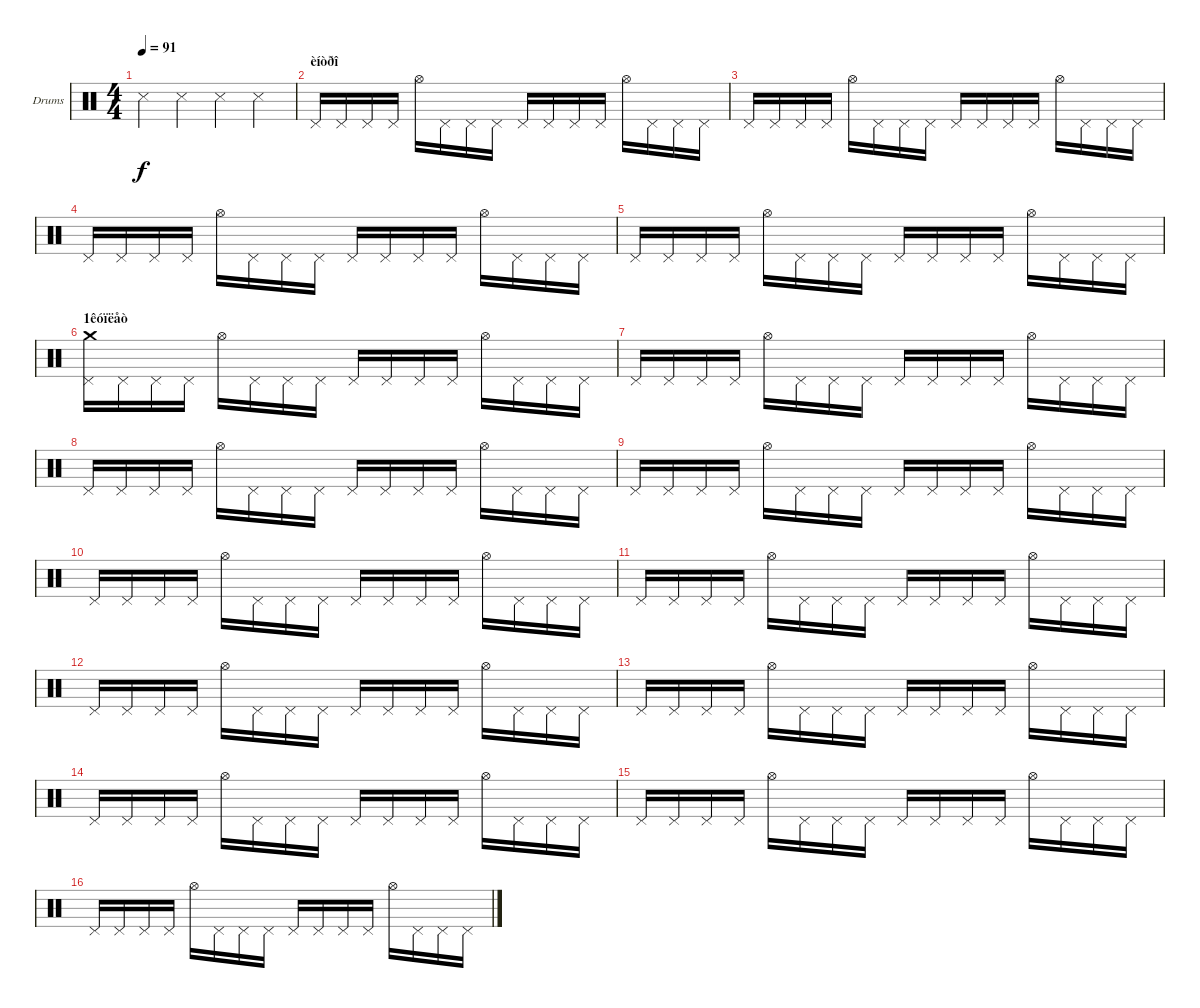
\bracketExtendMode groupsimilarinstruments
\firstSystemTrackNameOrientation horizontal
\otherSystemsTrackNameOrientation horizontal
\track ("Drumkit" "Drums") {instrument percussion}
\staff {score}
\articulation defaults
\ts (4 4)
\tempo 91
\clef neutral
\ks c "Snare (side stick) 3".4{dy f} "Snare (side stick) 3".4 "Snare (side stick) 3".4 "Snare (side stick) 3".4
|
\section ("" "èíòðî")
"Pedal Hi-Hat (hit)".16 "Pedal Hi-Hat (hit)".16 "Pedal Hi-Hat (hit)".16 "Pedal Hi-Hat (hit)".16 "Hi-Hat (open)".16 "Pedal Hi-Hat (hit)".16 "Pedal Hi-Hat (hit)".16 "Pedal Hi-Hat (hit)".16 "Pedal Hi-Hat (hit)".16 "Pedal Hi-Hat (hit)".16 "Pedal Hi-Hat (hit)".16 "Pedal Hi-Hat (hit)".16 "Hi-Hat (open)".16 "Pedal Hi-Hat (hit)".16 "Pedal Hi-Hat (hit)".16 "Pedal Hi-Hat (hit)".16 |
"Pedal Hi-Hat (hit)".16 "Pedal Hi-Hat (hit)".16 "Pedal Hi-Hat (hit)".16 "Pedal Hi-Hat (hit)".16 "Hi-Hat (open)".16 "Pedal Hi-Hat (hit)".16 "Pedal Hi-Hat (hit)".16 "Pedal Hi-Hat (hit)".16 "Pedal Hi-Hat (hit)".16 "Pedal Hi-Hat (hit)".16 "Pedal Hi-Hat (hit)".16 "Pedal Hi-Hat (hit)".16 "Hi-Hat (open)".16 "Pedal Hi-Hat (hit)".16 "Pedal Hi-Hat (hit)".16 "Pedal Hi-Hat (hit)".16 |
"Pedal Hi-Hat (hit)".16 "Pedal Hi-Hat (hit)".16 "Pedal Hi-Hat (hit)".16 "Pedal Hi-Hat (hit)".16 "Hi-Hat (open)".16 "Pedal Hi-Hat (hit)".16 "Pedal Hi-Hat (hit)".16 "Pedal Hi-Hat (hit)".16 "Pedal Hi-Hat (hit)".16 "Pedal Hi-Hat (hit)".16 "Pedal Hi-Hat (hit)".16 "Pedal Hi-Hat (hit)".16 "Hi-Hat (open)".16 "Pedal Hi-Hat (hit)".16 "Pedal Hi-Hat (hit)".16 "Pedal Hi-Hat (hit)".16 |
"Pedal Hi-Hat (hit)".16 "Pedal Hi-Hat (hit)".16 "Pedal Hi-Hat (hit)".16 "Pedal Hi-Hat (hit)".16 "Hi-Hat (open)".16 "Pedal Hi-Hat (hit)".16 "Pedal Hi-Hat (hit)".16 "Pedal Hi-Hat (hit)".16 "Pedal Hi-Hat (hit)".16 "Pedal Hi-Hat (hit)".16 "Pedal Hi-Hat (hit)".16 "Pedal Hi-Hat (hit)".16 "Hi-Hat (open)".16 "Pedal Hi-Hat (hit)".16 "Pedal Hi-Hat (hit)".16 "Pedal Hi-Hat (hit)".16 |
\section ("" "1êóïëåò")
("Pedal Hi-Hat (hit)" "Crash medium (hit)").16 "Pedal Hi-Hat (hit)".16 "Pedal Hi-Hat (hit)".16 "Pedal Hi-Hat (hit)".16 "Hi-Hat (open)".16 "Pedal Hi-Hat (hit)".16 "Pedal Hi-Hat (hit)".16 "Pedal Hi-Hat (hit)".16 "Pedal Hi-Hat (hit)".16 "Pedal Hi-Hat (hit)".16 "Pedal Hi-Hat (hit)".16 "Pedal Hi-Hat (hit)".16 "Hi-Hat (open)".16 "Pedal Hi-Hat (hit)".16 "Pedal Hi-Hat (hit)".16 "Pedal Hi-Hat (hit)".16 |
"Pedal Hi-Hat (hit)".16 "Pedal Hi-Hat (hit)".16 "Pedal Hi-Hat (hit)".16 "Pedal Hi-Hat (hit)".16 "Hi-Hat (open)".16 "Pedal Hi-Hat (hit)".16 "Pedal Hi-Hat (hit)".16 "Pedal Hi-Hat (hit)".16 "Pedal Hi-Hat (hit)".16 "Pedal Hi-Hat (hit)".16 "Pedal Hi-Hat (hit)".16 "Pedal Hi-Hat (hit)".16 "Hi-Hat (open)".16 "Pedal Hi-Hat (hit)".16 "Pedal Hi-Hat (hit)".16 "Pedal Hi-Hat (hit)".16 |
"Pedal Hi-Hat (hit)".16 "Pedal Hi-Hat (hit)".16 "Pedal Hi-Hat (hit)".16 "Pedal Hi-Hat (hit)".16 "Hi-Hat (open)".16 "Pedal Hi-Hat (hit)".16 "Pedal Hi-Hat (hit)".16 "Pedal Hi-Hat (hit)".16 "Pedal Hi-Hat (hit)".16 "Pedal Hi-Hat (hit)".16 "Pedal Hi-Hat (hit)".16 "Pedal Hi-Hat (hit)".16 "Hi-Hat (open)".16 "Pedal Hi-Hat (hit)".16 "Pedal Hi-Hat (hit)".16 "Pedal Hi-Hat (hit)".16 |
"Pedal Hi-Hat (hit)".16 "Pedal Hi-Hat (hit)".16 "Pedal Hi-Hat (hit)".16 "Pedal Hi-Hat (hit)".16 "Hi-Hat (open)".16 "Pedal Hi-Hat (hit)".16 "Pedal Hi-Hat (hit)".16 "Pedal Hi-Hat (hit)".16 "Pedal Hi-Hat (hit)".16 "Pedal Hi-Hat (hit)".16 "Pedal Hi-Hat (hit)".16 "Pedal Hi-Hat (hit)".16 "Hi-Hat (open)".16 "Pedal Hi-Hat (hit)".16 "Pedal Hi-Hat (hit)".16 "Pedal Hi-Hat (hit)".16 |
"Pedal Hi-Hat (hit)".16 "Pedal Hi-Hat (hit)".16 "Pedal Hi-Hat (hit)".16 "Pedal Hi-Hat (hit)".16 "Hi-Hat (open)".16 "Pedal Hi-Hat (hit)".16 "Pedal Hi-Hat (hit)".16 "Pedal Hi-Hat (hit)".16 "Pedal Hi-Hat (hit)".16 "Pedal Hi-Hat (hit)".16 "Pedal Hi-Hat (hit)".16 "Pedal Hi-Hat (hit)".16 "Hi-Hat (open)".16 "Pedal Hi-Hat (hit)".16 "Pedal Hi-Hat (hit)".16 "Pedal Hi-Hat (hit)".16 |
"Pedal Hi-Hat (hit)".16 "Pedal Hi-Hat (hit)".16 "Pedal Hi-Hat (hit)".16 "Pedal Hi-Hat (hit)".16 "Hi-Hat (open)".16 "Pedal Hi-Hat (hit)".16 "Pedal Hi-Hat (hit)".16 "Pedal Hi-Hat (hit)".16 "Pedal Hi-Hat (hit)".16 "Pedal Hi-Hat (hit)".16 "Pedal Hi-Hat (hit)".16 "Pedal Hi-Hat (hit)".16 "Hi-Hat (open)".16 "Pedal Hi-Hat (hit)".16 "Pedal Hi-Hat (hit)".16 "Pedal Hi-Hat (hit)".16 |
"Pedal Hi-Hat (hit)".16 "Pedal Hi-Hat (hit)".16 "Pedal Hi-Hat (hit)".16 "Pedal Hi-Hat (hit)".16 "Hi-Hat (open)".16 "Pedal Hi-Hat (hit)".16 "Pedal Hi-Hat (hit)".16 "Pedal Hi-Hat (hit)".16 "Pedal Hi-Hat (hit)".16 "Pedal Hi-Hat (hit)".16 "Pedal Hi-Hat (hit)".16 "Pedal Hi-Hat (hit)".16 "Hi-Hat (open)".16 "Pedal Hi-Hat (hit)".16 "Pedal Hi-Hat (hit)".16 "Pedal Hi-Hat (hit)".16 |
"Pedal Hi-Hat (hit)".16 "Pedal Hi-Hat (hit)".16 "Pedal Hi-Hat (hit)".16 "Pedal Hi-Hat (hit)".16 "Hi-Hat (open)".16 "Pedal Hi-Hat (hit)".16 "Pedal Hi-Hat (hit)".16 "Pedal Hi-Hat (hit)".16 "Pedal Hi-Hat (hit)".16 "Pedal Hi-Hat (hit)".16 "Pedal Hi-Hat (hit)".16 "Pedal Hi-Hat (hit)".16 "Hi-Hat (open)".16 "Pedal Hi-Hat (hit)".16 "Pedal Hi-Hat (hit)".16 "Pedal Hi-Hat (hit)".16 |
"Pedal Hi-Hat (hit)".16 "Pedal Hi-Hat (hit)".16 "Pedal Hi-Hat (hit)".16 "Pedal Hi-Hat (hit)".16 "Hi-Hat (open)".16 "Pedal Hi-Hat (hit)".16 "Pedal Hi-Hat (hit)".16 "Pedal Hi-Hat (hit)".16 "Pedal Hi-Hat (hit)".16 "Pedal Hi-Hat (hit)".16 "Pedal Hi-Hat (hit)".16 "Pedal Hi-Hat (hit)".16 "Hi-Hat (open)".16 "Pedal Hi-Hat (hit)".16 "Pedal Hi-Hat (hit)".16 "Pedal Hi-Hat (hit)".16 |
"Pedal Hi-Hat (hit)".16 "Pedal Hi-Hat (hit)".16 "Pedal Hi-Hat (hit)".16 "Pedal Hi-Hat (hit)".16 "Hi-Hat (open)".16 "Pedal Hi-Hat (hit)".16 "Pedal Hi-Hat (hit)".16 "Pedal Hi-Hat (hit)".16 "Pedal Hi-Hat (hit)".16 "Pedal Hi-Hat (hit)".16 "Pedal Hi-Hat (hit)".16 "Pedal Hi-Hat (hit)".16 "Hi-Hat (open)".16 "Pedal Hi-Hat (hit)".16 "Pedal Hi-Hat (hit)".16 "Pedal Hi-Hat (hit)".16 |
"Pedal Hi-Hat (hit)".16 "Pedal Hi-Hat (hit)".16 "Pedal Hi-Hat (hit)".16 "Pedal Hi-Hat (hit)".16 "Hi-Hat (open)".16 "Pedal Hi-Hat (hit)".16 "Pedal Hi-Hat (hit)".16 "Pedal Hi-Hat (hit)".16 "Pedal Hi-Hat (hit)".16 "Pedal Hi-Hat (hit)".16 "Pedal Hi-Hat (hit)".16 "Pedal Hi-Hat (hit)".16 "Hi-Hat (open)".16 "Pedal Hi-Hat (hit)".16 "Pedal Hi-Hat (hit)".16 "Pedal Hi-Hat (hit)".16
